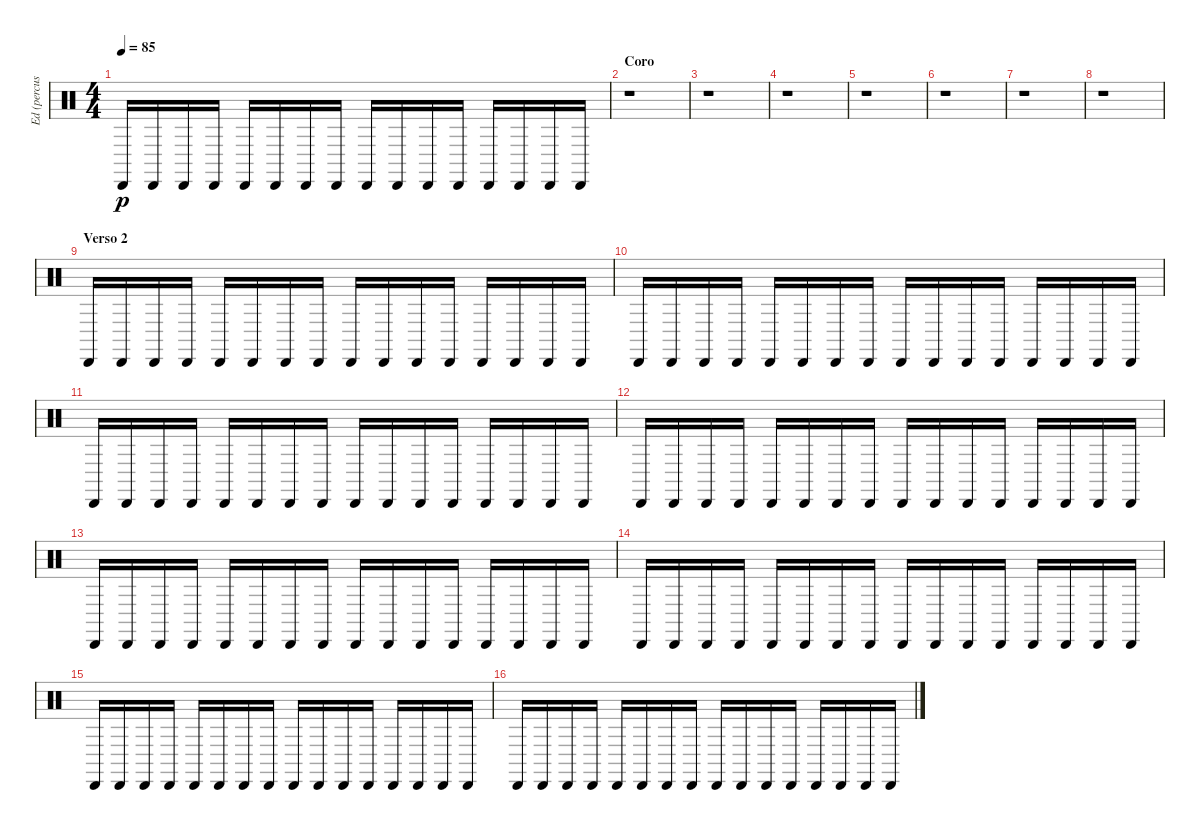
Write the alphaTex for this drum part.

\track ("Ed (percusion)" "Ed (percus") {instrument percussion}
\staff {score}
\articulation defaults
\ts (4 4)
\tempo 85
\clef neutral
\ks c "Cabasa (hit)".16{dy p} "Cabasa (hit)".16 "Cabasa (hit)".16 "Cabasa (hit)".16 "Cabasa (hit)".16 "Cabasa (hit)".16 "Cabasa (hit)".16 "Cabasa (hit)".16 "Cabasa (hit)".16 "Cabasa (hit)".16 "Cabasa (hit)".16 "Cabasa (hit)".16 "Cabasa (hit)".16 "Cabasa (hit)".16 "Cabasa (hit)".16 "Cabasa (hit)".16
|
\section ("" "Coro")
r.1 |
r.1 |
r.1 |
r.1 |
r.1 |
r.1 |
r.1 |
\section ("" "Verso 2")
"Cabasa (hit)".16 "Cabasa (hit)".16 "Cabasa (hit)".16 "Cabasa (hit)".16 "Cabasa (hit)".16 "Cabasa (hit)".16 "Cabasa (hit)".16 "Cabasa (hit)".16 "Cabasa (hit)".16 "Cabasa (hit)".16 "Cabasa (hit)".16 "Cabasa (hit)".16 "Cabasa (hit)".16 "Cabasa (hit)".16 "Cabasa (hit)".16 "Cabasa (hit)".16 |
"Cabasa (hit)".16 "Cabasa (hit)".16 "Cabasa (hit)".16 "Cabasa (hit)".16 "Cabasa (hit)".16 "Cabasa (hit)".16 "Cabasa (hit)".16 "Cabasa (hit)".16 "Cabasa (hit)".16 "Cabasa (hit)".16 "Cabasa (hit)".16 "Cabasa (hit)".16 "Cabasa (hit)".16 "Cabasa (hit)".16 "Cabasa (hit)".16 "Cabasa (hit)".16 |
"Cabasa (hit)".16 "Cabasa (hit)".16 "Cabasa (hit)".16 "Cabasa (hit)".16 "Cabasa (hit)".16 "Cabasa (hit)".16 "Cabasa (hit)".16 "Cabasa (hit)".16 "Cabasa (hit)".16 "Cabasa (hit)".16 "Cabasa (hit)".16 "Cabasa (hit)".16 "Cabasa (hit)".16 "Cabasa (hit)".16 "Cabasa (hit)".16 "Cabasa (hit)".16 |
"Cabasa (hit)".16 "Cabasa (hit)".16 "Cabasa (hit)".16 "Cabasa (hit)".16 "Cabasa (hit)".16 "Cabasa (hit)".16 "Cabasa (hit)".16 "Cabasa (hit)".16 "Cabasa (hit)".16 "Cabasa (hit)".16 "Cabasa (hit)".16 "Cabasa (hit)".16 "Cabasa (hit)".16 "Cabasa (hit)".16 "Cabasa (hit)".16 "Cabasa (hit)".16 |
"Cabasa (hit)".16 "Cabasa (hit)".16 "Cabasa (hit)".16 "Cabasa (hit)".16 "Cabasa (hit)".16 "Cabasa (hit)".16 "Cabasa (hit)".16 "Cabasa (hit)".16 "Cabasa (hit)".16 "Cabasa (hit)".16 "Cabasa (hit)".16 "Cabasa (hit)".16 "Cabasa (hit)".16 "Cabasa (hit)".16 "Cabasa (hit)".16 "Cabasa (hit)".16 |
"Cabasa (hit)".16 "Cabasa (hit)".16 "Cabasa (hit)".16 "Cabasa (hit)".16 "Cabasa (hit)".16 "Cabasa (hit)".16 "Cabasa (hit)".16 "Cabasa (hit)".16 "Cabasa (hit)".16 "Cabasa (hit)".16 "Cabasa (hit)".16 "Cabasa (hit)".16 "Cabasa (hit)".16 "Cabasa (hit)".16 "Cabasa (hit)".16 "Cabasa (hit)".16 |
"Cabasa (hit)".16 "Cabasa (hit)".16 "Cabasa (hit)".16 "Cabasa (hit)".16 "Cabasa (hit)".16 "Cabasa (hit)".16 "Cabasa (hit)".16 "Cabasa (hit)".16 "Cabasa (hit)".16 "Cabasa (hit)".16 "Cabasa (hit)".16 "Cabasa (hit)".16 "Cabasa (hit)".16 "Cabasa (hit)".16 "Cabasa (hit)".16 "Cabasa (hit)".16 |
"Cabasa (hit)".16 "Cabasa (hit)".16 "Cabasa (hit)".16 "Cabasa (hit)".16 "Cabasa (hit)".16 "Cabasa (hit)".16 "Cabasa (hit)".16 "Cabasa (hit)".16 "Cabasa (hit)".16 "Cabasa (hit)".16 "Cabasa (hit)".16 "Cabasa (hit)".16 "Cabasa (hit)".16 "Cabasa (hit)".16 "Cabasa (hit)".16 "Cabasa (hit)".16
